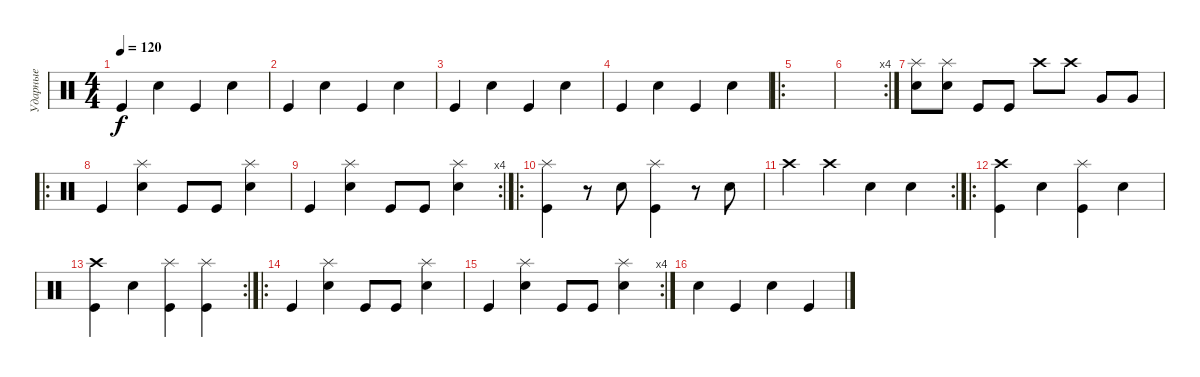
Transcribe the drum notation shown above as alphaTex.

\track ("Ударные" "Ударные") {instrument percussion}
\staff {score}
\articulation defaults
\ts (4 4)
\tempo 120
\clef neutral
\ks c "Kick (hit)".4{dy f} "Snare (hit) 2".4 "Kick (hit)".4 "Snare (hit) 2".4
|
"Kick (hit)".4 "Snare (hit) 2".4 "Kick (hit)".4 "Snare (hit) 2".4 |
"Kick (hit)".4 "Snare (hit) 2".4 "Kick (hit)".4 "Snare (hit) 2".4 |
"Kick (hit)".4 "Snare (hit) 2".4 "Kick (hit)".4 "Snare (hit) 2".4 |
\ro
|
\rc 4
|
("Electric Snare (hit)" "Splash (hit)").8 ("Electric Snare (hit)" "Splash (hit)").8 "Kick (hit)".8 "Kick (hit)".8 "Crash high (hit)".8 "Crash high (hit)".8 "Very Low Tom (hit)".8 "Very Low Tom (hit)".8 |
\ro "Kick (hit)".4
("Splash (hit)" "Electric Snare (hit)").4 "Kick (hit)".8 "Kick (hit)".8 ("Splash (hit)" "Electric Snare (hit)").4 |
\rc 4 "Kick (hit)".4
("Splash (hit)" "Electric Snare (hit)").4 "Kick (hit)".8 "Kick (hit)".8 ("Splash (hit)" "Electric Snare (hit)").4 |
\ro
("Kick (hit)" "Splash (hit)").4 r.8 "Electric Snare (hit)".8 ("Kick (hit)" "Splash (hit)").4 r.8 "Electric Snare (hit)".8 |
\rc 2 "Crash high (hit)".4 "Crash high (hit)".4 "Snare (hit) 2".4 "Snare (hit) 2".4
|
\ro
("Kick (hit)" "Crash high (hit)").4 "Electric Snare (hit)".4 ("Kick (hit)" "Splash (hit)").4 "Electric Snare (hit)".4 |
\rc 2
("Kick (hit)" "Crash high (hit)").4 "Electric Snare (hit)".4 ("Kick (hit)" "Splash (hit)").4 ("Kick (hit)" "Splash (hit)").4 |
\ro "Kick (hit)".4
("Splash (hit)" "Electric Snare (hit)").4 "Kick (hit)".8 "Kick (hit)".8 ("Splash (hit)" "Electric Snare (hit)").4 |
\rc 4 "Kick (hit)".4
("Splash (hit)" "Electric Snare (hit)").4 "Kick (hit)".8 "Kick (hit)".8 ("Splash (hit)" "Electric Snare (hit)").4 |
"Electric Snare (hit)".4 "Kick (hit)".4 "Electric Snare (hit)".4 "Kick (hit)".4
